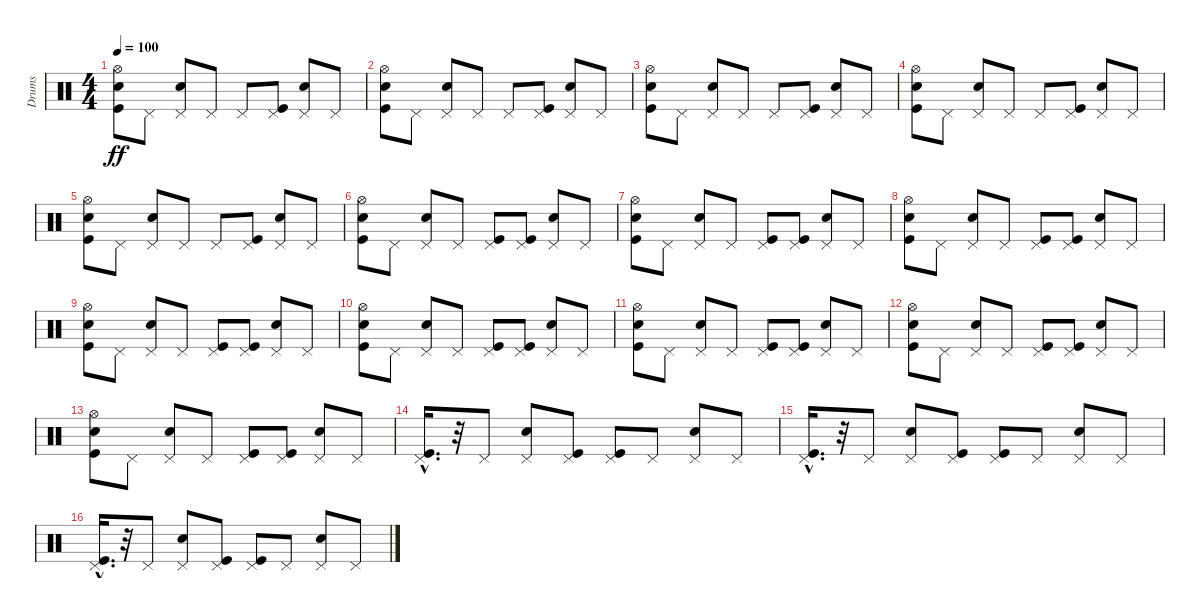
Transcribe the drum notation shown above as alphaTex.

\track ("Drums" "Drums") {instrument percussion}
\staff {score}
\articulation defaults
\ts (4 4)
\tempo 100
\clef neutral
\ks c
("Kick (hit)" "Electric Snare (hit)" "Hi-Hat (open)").8{dy ff} "Pedal Hi-Hat (hit)".8 ("Electric Snare (hit)" "Pedal Hi-Hat (hit)").8 "Pedal Hi-Hat (hit)".8 "Pedal Hi-Hat (hit)".8 ("Kick (hit)" "Pedal Hi-Hat (hit)").8 ("Electric Snare (hit)" "Pedal Hi-Hat (hit)").8 "Pedal Hi-Hat (hit)".8 |
("Kick (hit)" "Electric Snare (hit)" "Hi-Hat (open)").8 "Pedal Hi-Hat (hit)".8 ("Electric Snare (hit)" "Pedal Hi-Hat (hit)").8 "Pedal Hi-Hat (hit)".8 "Pedal Hi-Hat (hit)".8 ("Kick (hit)" "Pedal Hi-Hat (hit)").8 ("Electric Snare (hit)" "Pedal Hi-Hat (hit)").8 "Pedal Hi-Hat (hit)".8 |
("Kick (hit)" "Electric Snare (hit)" "Hi-Hat (open)").8 "Pedal Hi-Hat (hit)".8 ("Electric Snare (hit)" "Pedal Hi-Hat (hit)").8 "Pedal Hi-Hat (hit)".8 "Pedal Hi-Hat (hit)".8 ("Kick (hit)" "Pedal Hi-Hat (hit)").8 ("Electric Snare (hit)" "Pedal Hi-Hat (hit)").8 "Pedal Hi-Hat (hit)".8 |
("Kick (hit)" "Electric Snare (hit)" "Hi-Hat (open)").8 "Pedal Hi-Hat (hit)".8 ("Electric Snare (hit)" "Pedal Hi-Hat (hit)").8 "Pedal Hi-Hat (hit)".8 "Pedal Hi-Hat (hit)".8 ("Kick (hit)" "Pedal Hi-Hat (hit)").8 ("Electric Snare (hit)" "Pedal Hi-Hat (hit)").8 "Pedal Hi-Hat (hit)".8 |
("Kick (hit)" "Electric Snare (hit)" "Hi-Hat (open)").8 "Pedal Hi-Hat (hit)".8 ("Electric Snare (hit)" "Pedal Hi-Hat (hit)").8 "Pedal Hi-Hat (hit)".8 "Pedal Hi-Hat (hit)".8 ("Kick (hit)" "Pedal Hi-Hat (hit)").8 ("Electric Snare (hit)" "Pedal Hi-Hat (hit)").8 "Pedal Hi-Hat (hit)".8 |
("Kick (hit)" "Electric Snare (hit)" "Hi-Hat (open)").8 "Pedal Hi-Hat (hit)".8 ("Electric Snare (hit)" "Pedal Hi-Hat (hit)").8 "Pedal Hi-Hat (hit)".8 ("Kick (hit)" "Pedal Hi-Hat (hit)").8 ("Kick (hit)" "Pedal Hi-Hat (hit)").8 ("Electric Snare (hit)" "Pedal Hi-Hat (hit)").8 "Pedal Hi-Hat (hit)".8 |
("Kick (hit)" "Electric Snare (hit)" "Hi-Hat (open)").8 "Pedal Hi-Hat (hit)".8 ("Electric Snare (hit)" "Pedal Hi-Hat (hit)").8 "Pedal Hi-Hat (hit)".8 ("Kick (hit)" "Pedal Hi-Hat (hit)").8 ("Kick (hit)" "Pedal Hi-Hat (hit)").8 ("Electric Snare (hit)" "Pedal Hi-Hat (hit)").8 "Pedal Hi-Hat (hit)".8 |
("Kick (hit)" "Electric Snare (hit)" "Hi-Hat (open)").8 "Pedal Hi-Hat (hit)".8 ("Electric Snare (hit)" "Pedal Hi-Hat (hit)").8 "Pedal Hi-Hat (hit)".8 ("Kick (hit)" "Pedal Hi-Hat (hit)").8 ("Kick (hit)" "Pedal Hi-Hat (hit)").8 ("Electric Snare (hit)" "Pedal Hi-Hat (hit)").8 "Pedal Hi-Hat (hit)".8 |
("Kick (hit)" "Electric Snare (hit)" "Hi-Hat (open)").8 "Pedal Hi-Hat (hit)".8 ("Electric Snare (hit)" "Pedal Hi-Hat (hit)").8 "Pedal Hi-Hat (hit)".8 ("Kick (hit)" "Pedal Hi-Hat (hit)").8 ("Kick (hit)" "Pedal Hi-Hat (hit)").8 ("Electric Snare (hit)" "Pedal Hi-Hat (hit)").8 "Pedal Hi-Hat (hit)".8 |
("Kick (hit)" "Electric Snare (hit)" "Hi-Hat (open)").8 "Pedal Hi-Hat (hit)".8 ("Electric Snare (hit)" "Pedal Hi-Hat (hit)").8 "Pedal Hi-Hat (hit)".8 ("Kick (hit)" "Pedal Hi-Hat (hit)").8 ("Kick (hit)" "Pedal Hi-Hat (hit)").8 ("Electric Snare (hit)" "Pedal Hi-Hat (hit)").8 "Pedal Hi-Hat (hit)".8 |
("Kick (hit)" "Electric Snare (hit)" "Hi-Hat (open)").8 "Pedal Hi-Hat (hit)".8 ("Electric Snare (hit)" "Pedal Hi-Hat (hit)").8 "Pedal Hi-Hat (hit)".8 ("Kick (hit)" "Pedal Hi-Hat (hit)").8 ("Kick (hit)" "Pedal Hi-Hat (hit)").8 ("Electric Snare (hit)" "Pedal Hi-Hat (hit)").8 "Pedal Hi-Hat (hit)".8 |
("Kick (hit)" "Electric Snare (hit)" "Hi-Hat (open)").8 "Pedal Hi-Hat (hit)".8 ("Electric Snare (hit)" "Pedal Hi-Hat (hit)").8 "Pedal Hi-Hat (hit)".8 ("Kick (hit)" "Pedal Hi-Hat (hit)").8 ("Kick (hit)" "Pedal Hi-Hat (hit)").8 ("Electric Snare (hit)" "Pedal Hi-Hat (hit)").8 "Pedal Hi-Hat (hit)".8 |
("Kick (hit)" "Electric Snare (hit)" "Hi-Hat (open)").8 "Pedal Hi-Hat (hit)".8 ("Electric Snare (hit)" "Pedal Hi-Hat (hit)").8 "Pedal Hi-Hat (hit)".8 ("Kick (hit)" "Pedal Hi-Hat (hit)").8 ("Kick (hit)" "Pedal Hi-Hat (hit)").8 ("Electric Snare (hit)" "Pedal Hi-Hat (hit)").8 "Pedal Hi-Hat (hit)".8 |
("Pedal Hi-Hat (hit)" "Kick (hit)"{hac}).16{d} r.32 "Pedal Hi-Hat (hit)".8 ("Electric Snare (hit)" "Pedal Hi-Hat (hit)").8 ("Kick (hit)" "Pedal Hi-Hat (hit)").8 ("Kick (hit)" "Pedal Hi-Hat (hit)").8 "Pedal Hi-Hat (hit)".8 ("Electric Snare (hit)" "Pedal Hi-Hat (hit)").8 "Pedal Hi-Hat (hit)".8 |
("Pedal Hi-Hat (hit)" "Kick (hit)"{hac}).16{d} r.32 "Pedal Hi-Hat (hit)".8 ("Electric Snare (hit)" "Pedal Hi-Hat (hit)").8 ("Kick (hit)" "Pedal Hi-Hat (hit)").8 ("Kick (hit)" "Pedal Hi-Hat (hit)").8 "Pedal Hi-Hat (hit)".8 ("Electric Snare (hit)" "Pedal Hi-Hat (hit)").8 "Pedal Hi-Hat (hit)".8 |
("Pedal Hi-Hat (hit)" "Kick (hit)"{hac}).16{d} r.32 "Pedal Hi-Hat (hit)".8 ("Electric Snare (hit)" "Pedal Hi-Hat (hit)").8 ("Kick (hit)" "Pedal Hi-Hat (hit)").8 ("Kick (hit)" "Pedal Hi-Hat (hit)").8 "Pedal Hi-Hat (hit)".8 ("Electric Snare (hit)" "Pedal Hi-Hat (hit)").8 "Pedal Hi-Hat (hit)".8
